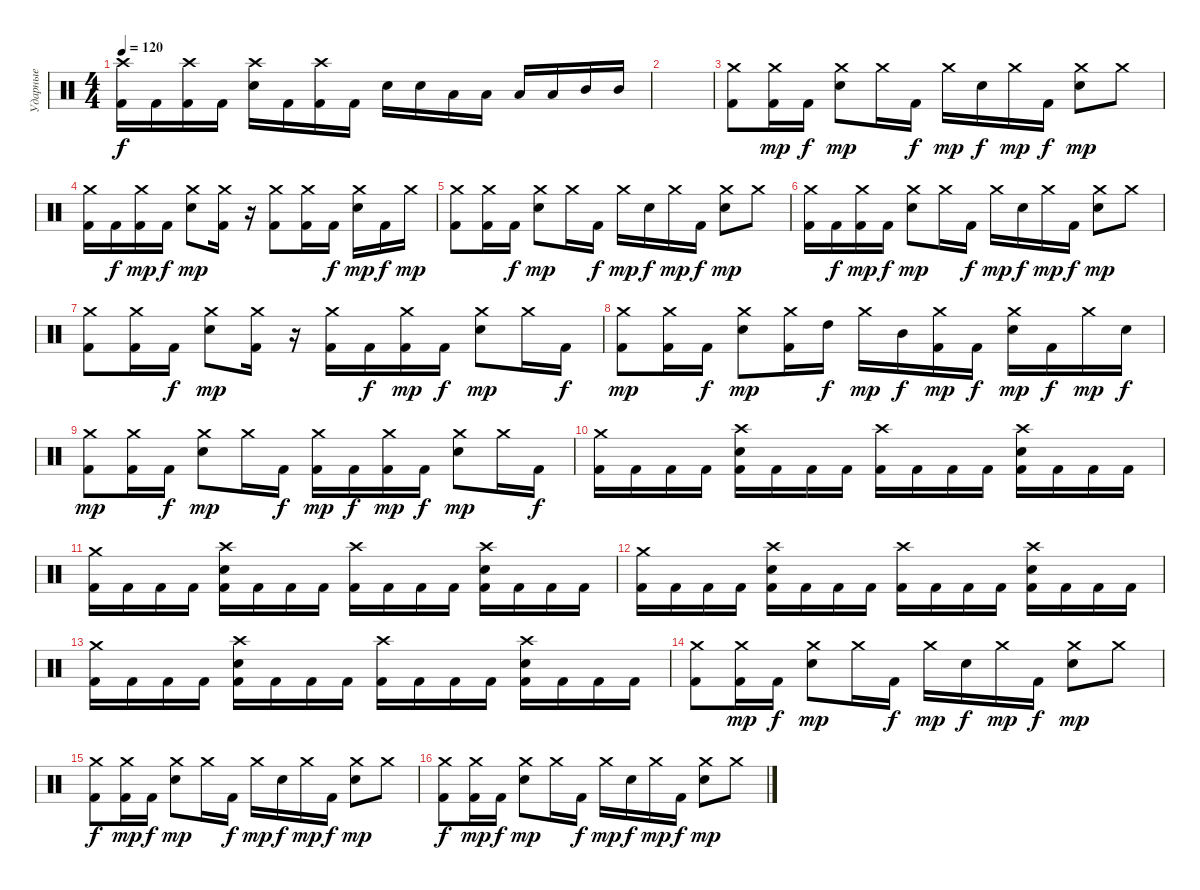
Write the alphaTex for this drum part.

\track ("Ударные" "Ударные") {instrument percussion}
\staff {score}
\articulation defaults
\ts (4 4)
\tempo 120
\clef neutral
\ks c
("Crash high (hit)" "Kick (hit) 2").16{dy f} "Kick (hit) 2".16 ("Crash high (hit)" "Kick (hit) 2").16 "Kick (hit) 2".16 ("Crash high (hit)" "Electric Snare (hit)").16 "Kick (hit) 2".16 ("Crash high (hit)" "Kick (hit) 2").16 "Kick (hit) 2".16 "Electric Snare (hit)".16 "Electric Snare (hit)".16 "Low Floor Tom (hit)".16 "Low Floor Tom (hit)".16 "Low Tom (hit)".16 "Low Tom (hit)".16 "Mid Tom (hit)".16 "Mid Tom (hit)".16 |
|
("Crash medium (hit)" "Kick (hit) 2").8 ("Crash medium (hit)" "Kick (hit) 2").16{dy mp} "Kick (hit) 2".16{dy f} ("Crash medium (hit)" "Electric Snare (hit)").8{dy mp} "Crash medium (hit)".16 "Kick (hit) 2".16{dy f} "Crash medium (hit)".16{dy mp} "Electric Snare (hit)".16{dy f} "Crash medium (hit)".16{dy mp} "Kick (hit) 2".16{dy f} ("Crash medium (hit)" "Electric Snare (hit)").8{dy mp} "Crash medium (hit)".8 |
("Crash medium (hit)" "Kick (hit) 2").16 "Kick (hit) 2".16{dy f} ("Crash medium (hit)" "Kick (hit) 2").16{dy mp} "Kick (hit) 2".16{dy f} ("Crash medium (hit)" "Electric Snare (hit)").8{dy mp} ("Crash medium (hit)" "Kick (hit) 2").16 r.16 ("Crash medium (hit)" "Kick (hit) 2").8 ("Crash medium (hit)" "Kick (hit) 2").16 "Kick (hit) 2".16{dy f} ("Crash medium (hit)" "Electric Snare (hit)").16{dy mp} "Kick (hit) 2".16{dy f} "Crash medium (hit)".16{dy mp} |
("Crash medium (hit)" "Kick (hit) 2").8 ("Crash medium (hit)" "Kick (hit) 2").16 "Kick (hit) 2".16{dy f} ("Crash medium (hit)" "Electric Snare (hit)").8{dy mp} "Crash medium (hit)".16 "Kick (hit) 2".16{dy f} "Crash medium (hit)".16{dy mp} "Electric Snare (hit)".16{dy f} "Crash medium (hit)".16{dy mp} "Kick (hit) 2".16{dy f} ("Crash medium (hit)" "Electric Snare (hit)").8{dy mp} "Crash medium (hit)".8 |
("Crash medium (hit)" "Kick (hit) 2").16 "Kick (hit) 2".16{dy f} ("Crash medium (hit)" "Kick (hit) 2").16{dy mp} "Kick (hit) 2".16{dy f} ("Crash medium (hit)" "Electric Snare (hit)").8{dy mp} "Crash medium (hit)".16 "Kick (hit) 2".16{dy f} "Crash medium (hit)".16{dy mp} "Electric Snare (hit)".16{dy f} "Crash medium (hit)".16{dy mp} "Kick (hit) 2".16{dy f} ("Crash medium (hit)" "Electric Snare (hit)").8{dy mp} "Crash medium (hit)".8 |
("Crash medium (hit)" "Kick (hit) 2").8 ("Crash medium (hit)" "Kick (hit) 2").16 "Kick (hit) 2".16{dy f} ("Crash medium (hit)" "Electric Snare (hit)").8{dy mp} ("Crash medium (hit)" "Kick (hit) 2").16 r.16 ("Crash medium (hit)" "Kick (hit) 2").16 "Kick (hit) 2".16{dy f} ("Crash medium (hit)" "Kick (hit) 2").16{dy mp} "Kick (hit) 2".16{dy f} ("Crash medium (hit)" "Electric Snare (hit)").8{dy mp} "Crash medium (hit)".16 "Kick (hit) 2".16{dy f} |
("Crash medium (hit)" "Kick (hit) 2").8{dy mp} ("Crash medium (hit)" "Kick (hit) 2").16 "Kick (hit) 2".16{dy f} ("Crash medium (hit)" "Electric Snare (hit)").8{dy mp} ("Crash medium (hit)" "Kick (hit) 2").16 "High Tom (hit)".16{dy f} "Crash medium (hit)".16{dy mp} "Mid Tom (hit)".16{dy f} ("Crash medium (hit)" "Kick (hit) 2").16{dy mp} "Kick (hit) 2".16{dy f} ("Crash medium (hit)" "Electric Snare (hit)").16{dy mp} "Kick (hit) 2".16{dy f} "Crash medium (hit)".16{dy mp} "Electric Snare (hit)".16{dy f} |
("Crash medium (hit)" "Kick (hit) 2").8{dy mp} ("Crash medium (hit)" "Kick (hit) 2").16 "Kick (hit) 2".16{dy f} ("Crash medium (hit)" "Electric Snare (hit)").8{dy mp} "Crash medium (hit)".16 "Kick (hit) 2".16{dy f} ("Crash medium (hit)" "Kick (hit) 2").16{dy mp} "Kick (hit) 2".16{dy f} ("Crash medium (hit)" "Kick (hit) 2").16{dy mp} "Kick (hit) 2".16{dy f} ("Crash medium (hit)" "Electric Snare (hit)").8{dy mp} "Crash medium (hit)".16 "Kick (hit) 2".16{dy f} |
("Crash medium (hit)" "Kick (hit) 2").16 "Kick (hit) 2".16 "Kick (hit) 2".16 "Kick (hit) 2".16 ("Crash high (hit)" "Electric Snare (hit)" "Kick (hit) 2").16 "Kick (hit) 2".16 "Kick (hit) 2".16 "Kick (hit) 2".16 ("Crash high (hit)" "Kick (hit) 2").16 "Kick (hit) 2".16 "Kick (hit) 2".16 "Kick (hit) 2".16 ("Crash high (hit)" "Electric Snare (hit)" "Kick (hit) 2").16 "Kick (hit) 2".16 "Kick (hit) 2".16 "Kick (hit) 2".16 |
("Crash medium (hit)" "Kick (hit) 2").16 "Kick (hit) 2".16 "Kick (hit) 2".16 "Kick (hit) 2".16 ("Crash high (hit)" "Electric Snare (hit)" "Kick (hit) 2").16 "Kick (hit) 2".16 "Kick (hit) 2".16 "Kick (hit) 2".16 ("Crash high (hit)" "Kick (hit) 2").16 "Kick (hit) 2".16 "Kick (hit) 2".16 "Kick (hit) 2".16 ("Crash high (hit)" "Electric Snare (hit)" "Kick (hit) 2").16 "Kick (hit) 2".16 "Kick (hit) 2".16 "Kick (hit) 2".16 |
("Crash medium (hit)" "Kick (hit) 2").16 "Kick (hit) 2".16 "Kick (hit) 2".16 "Kick (hit) 2".16 ("Crash high (hit)" "Electric Snare (hit)" "Kick (hit) 2").16 "Kick (hit) 2".16 "Kick (hit) 2".16 "Kick (hit) 2".16 ("Crash high (hit)" "Kick (hit) 2").16 "Kick (hit) 2".16 "Kick (hit) 2".16 "Kick (hit) 2".16 ("Crash high (hit)" "Electric Snare (hit)" "Kick (hit) 2").16 "Kick (hit) 2".16 "Kick (hit) 2".16 "Kick (hit) 2".16 |
("Crash medium (hit)" "Kick (hit) 2").16 "Kick (hit) 2".16 "Kick (hit) 2".16 "Kick (hit) 2".16 ("Crash high (hit)" "Electric Snare (hit)" "Kick (hit) 2").16 "Kick (hit) 2".16 "Kick (hit) 2".16 "Kick (hit) 2".16 ("Crash high (hit)" "Kick (hit) 2").16 "Kick (hit) 2".16 "Kick (hit) 2".16 "Kick (hit) 2".16 ("Crash high (hit)" "Electric Snare (hit)" "Kick (hit) 2").16 "Kick (hit) 2".16 "Kick (hit) 2".16 "Kick (hit) 2".16 |
("Crash medium (hit)" "Kick (hit) 2").8 ("Crash medium (hit)" "Kick (hit) 2").16{dy mp} "Kick (hit) 2".16{dy f} ("Crash medium (hit)" "Electric Snare (hit)").8{dy mp} "Crash medium (hit)".16 "Kick (hit) 2".16{dy f} "Crash medium (hit)".16{dy mp} "Electric Snare (hit)".16{dy f} "Crash medium (hit)".16{dy mp} "Kick (hit) 2".16{dy f} ("Crash medium (hit)" "Electric Snare (hit)").8{dy mp} "Crash medium (hit)".8 |
("Crash medium (hit)" "Kick (hit) 2").8{dy f} ("Crash medium (hit)" "Kick (hit) 2").16{dy mp} "Kick (hit) 2".16{dy f} ("Crash medium (hit)" "Electric Snare (hit)").8{dy mp} "Crash medium (hit)".16 "Kick (hit) 2".16{dy f} "Crash medium (hit)".16{dy mp} "Electric Snare (hit)".16{dy f} "Crash medium (hit)".16{dy mp} "Kick (hit) 2".16{dy f} ("Crash medium (hit)" "Electric Snare (hit)").8{dy mp} "Crash medium (hit)".8 |
("Crash medium (hit)" "Kick (hit) 2").8{dy f} ("Crash medium (hit)" "Kick (hit) 2").16{dy mp} "Kick (hit) 2".16{dy f} ("Crash medium (hit)" "Electric Snare (hit)").8{dy mp} "Crash medium (hit)".16 "Kick (hit) 2".16{dy f} "Crash medium (hit)".16{dy mp} "Electric Snare (hit)".16{dy f} "Crash medium (hit)".16{dy mp} "Kick (hit) 2".16{dy f} ("Crash medium (hit)" "Electric Snare (hit)").8{dy mp} "Crash medium (hit)".8
